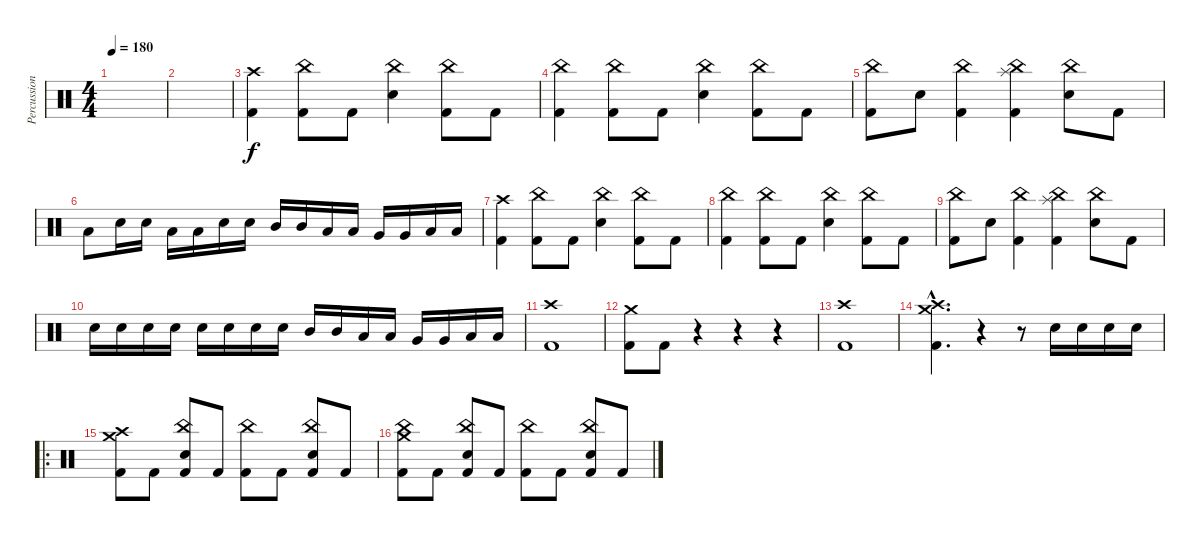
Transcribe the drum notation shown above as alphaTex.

\track ("Percussions" "Percussion") {instrument percussion}
\staff {score}
\articulation defaults
\ts (4 4)
\tempo 180
\clef neutral
\ks c
|
|
("Crash high (hit)" "Kick (hit) 2").4 ("China (hit)" "Kick (hit) 2").8 "Kick (hit) 2".8 ("China (hit)" "Snare (hit) 2").4 ("China (hit)" "Kick (hit) 2").8 "Kick (hit) 2".8 |
("China (hit)" "Kick (hit) 2").4 ("China (hit)" "Kick (hit) 2").8 "Kick (hit) 2".8 ("China (hit)" "Snare (hit) 2").4 ("China (hit)" "Kick (hit) 2").8 "Kick (hit) 2".8 |
("China (hit)" "Kick (hit) 2").8 "Snare (hit) 2".8 ("China (hit)" "Kick (hit) 2").4 ("Splash (hit)" "China (hit)" "Kick (hit) 2").4 ("China (hit)" "Snare (hit) 2").8 "Kick (hit) 2".8 |
"Low Tom (hit)".8 "Snare (hit) 2".16 "Snare (hit) 2".16 "Low Tom (hit)".16 "Low Tom (hit)".16 "Snare (hit) 2".16 "Snare (hit) 2".16 "Mid Tom (hit)".16 "Mid Tom (hit)".16 "Low Tom (hit)".16 "Low Tom (hit)".16 "Very Low Tom (hit)".16 "Very Low Tom (hit)".16 "Low Floor Tom (hit)".16 "Low Floor Tom (hit)".16 |
("Crash high (hit)" "Kick (hit) 2").4 ("China (hit)" "Kick (hit) 2").8 "Kick (hit) 2".8 ("China (hit)" "Snare (hit) 2").4 ("China (hit)" "Kick (hit) 2").8 "Kick (hit) 2".8 |
("China (hit)" "Kick (hit) 2").4 ("China (hit)" "Kick (hit) 2").8 "Kick (hit) 2".8 ("China (hit)" "Snare (hit) 2").4 ("China (hit)" "Kick (hit) 2").8 "Kick (hit) 2".8 |
("China (hit)" "Kick (hit) 2").8 "Snare (hit) 2".8 ("China (hit)" "Kick (hit) 2").4 ("Splash (hit)" "China (hit)" "Kick (hit) 2").4 ("China (hit)" "Snare (hit) 2").8 "Kick (hit) 2".8 |
"Snare (hit) 2".16 "Snare (hit) 2".16 "Snare (hit) 2".16 "Snare (hit) 2".16 "Snare (hit) 2".16 "Snare (hit) 2".16 "Snare (hit) 2".16 "Snare (hit) 2".16 "Mid Tom (hit)".16 "Mid Tom (hit)".16 "Low Tom (hit)".16 "Low Tom (hit)".16 "Very Low Tom (hit)".16 "Very Low Tom (hit)".16 "Low Floor Tom (hit)".16 "Low Floor Tom (hit)".16 |
("Crash high (hit)" "Kick (hit) 2").1 |
("Crash medium (hit)" "Kick (hit) 2").8 "Kick (hit) 2".8 r.4 r.4 r.4 |
("Crash high (hit)" "Kick (hit) 2").1 |
("Crash medium (hit)"{hac} "Crash high (hit)"{hac} "Kick (hit) 2"{hac}).4{d} r.4 r.8 "Snare (hit) 2".16 "Snare (hit) 2".16 "Snare (hit) 2".16 "Snare (hit) 2".16 |
\ro
("Crash medium (hit)" "Crash high (hit)" "Kick (hit) 2").8 "Kick (hit) 2".8 ("China (hit)" "Snare (hit) 2" "Kick (hit) 2").8 "Kick (hit) 2".8 ("China (hit)" "Kick (hit) 2").8 "Kick (hit) 2".8 ("China (hit)" "Snare (hit) 2" "Kick (hit) 2").8 "Kick (hit) 2".8 |
("Crash medium (hit)" "China (hit)" "Kick (hit) 2").8 "Kick (hit) 2".8 ("China (hit)" "Snare (hit) 2" "Kick (hit) 2").8 "Kick (hit) 2".8 ("China (hit)" "Kick (hit) 2").8 "Kick (hit) 2".8 ("China (hit)" "Snare (hit) 2" "Kick (hit) 2").8 "Kick (hit) 2".8
